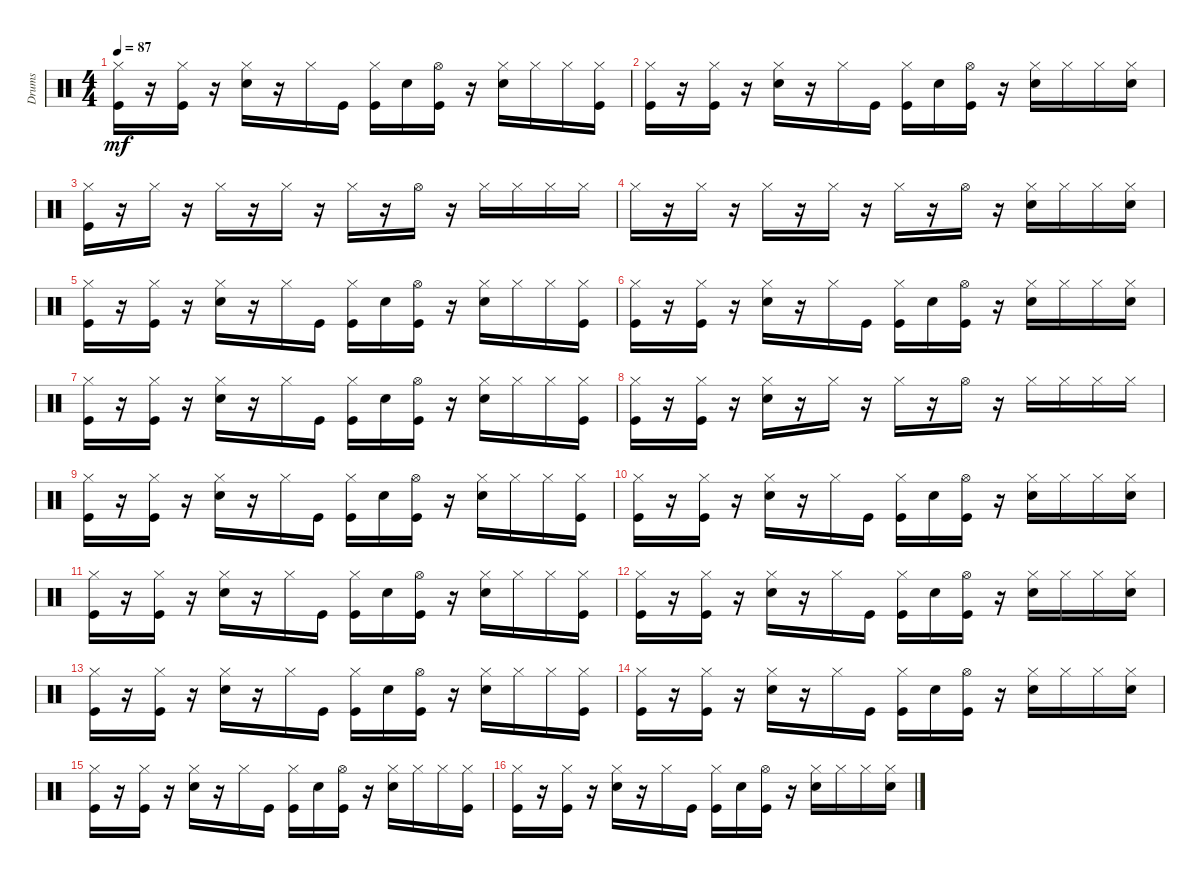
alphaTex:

\track ("Drums" "Drums") {instrument percussion}
\staff {score}
\articulation defaults
\ts (4 4)
\tempo 87
\clef neutral
\ks aminor
("Kick (hit)" "Hi-Hat (closed)").16{dy mf} r.16 ("Kick (hit)" "Hi-Hat (closed)").16 r.16 ("Electric Snare (hit)" "Hi-Hat (closed)").16 r.16 "Hi-Hat (closed)".16 "Kick (hit)".16 ("Kick (hit)" "Hi-Hat (closed)").16 "Electric Snare (hit)".16 ("Kick (hit)" "Hi-Hat (open)").16 r.16 ("Electric Snare (hit)" "Hi-Hat (closed)").16 "Hi-Hat (closed)".16 "Hi-Hat (closed)".16 ("Kick (hit)" "Hi-Hat (closed)").16 |
("Kick (hit)" "Hi-Hat (closed)").16 r.16 ("Kick (hit)" "Hi-Hat (closed)").16 r.16 ("Electric Snare (hit)" "Hi-Hat (closed)").16 r.16 "Hi-Hat (closed)".16 "Kick (hit)".16 ("Kick (hit)" "Hi-Hat (closed)").16 "Electric Snare (hit)".16 ("Kick (hit)" "Hi-Hat (open)").16 r.16 ("Electric Snare (hit)" "Hi-Hat (closed)").16 "Hi-Hat (closed)".16 "Hi-Hat (closed)".16 ("Electric Snare (hit)" "Hi-Hat (closed)").16 |
("Kick (hit)" "Hi-Hat (closed)").16 r.16 "Hi-Hat (closed)".16 r.16 "Hi-Hat (closed)".16 r.16 "Hi-Hat (closed)".16 r.16 "Hi-Hat (closed)".16 r.16 "Hi-Hat (open)".16 r.16 "Hi-Hat (closed)".16 "Hi-Hat (closed)".16 "Hi-Hat (closed)".16 "Hi-Hat (closed)".16 |
"Hi-Hat (closed)".16 r.16 "Hi-Hat (closed)".16 r.16 "Hi-Hat (closed)".16 r.16 "Hi-Hat (closed)".16 r.16 "Hi-Hat (closed)".16 r.16 "Hi-Hat (open)".16 r.16 ("Electric Snare (hit)" "Hi-Hat (closed)").16 "Hi-Hat (closed)".16 "Hi-Hat (closed)".16 ("Electric Snare (hit)" "Hi-Hat (closed)").16 |
("Kick (hit)" "Hi-Hat (closed)").16 r.16 ("Kick (hit)" "Hi-Hat (closed)").16 r.16 ("Electric Snare (hit)" "Hi-Hat (closed)").16 r.16 "Hi-Hat (closed)".16 "Kick (hit)".16 ("Kick (hit)" "Hi-Hat (closed)").16 "Electric Snare (hit)".16 ("Kick (hit)" "Hi-Hat (open)").16 r.16 ("Electric Snare (hit)" "Hi-Hat (closed)").16 "Hi-Hat (closed)".16 "Hi-Hat (closed)".16 ("Kick (hit)" "Hi-Hat (closed)").16 |
("Kick (hit)" "Hi-Hat (closed)").16 r.16 ("Kick (hit)" "Hi-Hat (closed)").16 r.16 ("Electric Snare (hit)" "Hi-Hat (closed)").16 r.16 "Hi-Hat (closed)".16 "Kick (hit)".16 ("Kick (hit)" "Hi-Hat (closed)").16 "Electric Snare (hit)".16 ("Kick (hit)" "Hi-Hat (open)").16 r.16 ("Electric Snare (hit)" "Hi-Hat (closed)").16 "Hi-Hat (closed)".16 "Hi-Hat (closed)".16 ("Electric Snare (hit)" "Hi-Hat (closed)").16 |
("Kick (hit)" "Hi-Hat (closed)").16 r.16 ("Kick (hit)" "Hi-Hat (closed)").16 r.16 ("Electric Snare (hit)" "Hi-Hat (closed)").16 r.16 "Hi-Hat (closed)".16 "Kick (hit)".16 ("Kick (hit)" "Hi-Hat (closed)").16 "Electric Snare (hit)".16 ("Kick (hit)" "Hi-Hat (open)").16 r.16 ("Electric Snare (hit)" "Hi-Hat (closed)").16 "Hi-Hat (closed)".16 "Hi-Hat (closed)".16 ("Kick (hit)" "Hi-Hat (closed)").16 |
("Kick (hit)" "Hi-Hat (closed)").16 r.16 ("Kick (hit)" "Hi-Hat (closed)").16 r.16 ("Electric Snare (hit)" "Hi-Hat (closed)").16 r.16 "Hi-Hat (closed)".16 r.16 "Hi-Hat (closed)".16 r.16 "Hi-Hat (open)".16 r.16 "Hi-Hat (closed)".16 "Hi-Hat (closed)".16 "Hi-Hat (closed)".16 "Hi-Hat (closed)".16 |
("Kick (hit)" "Hi-Hat (closed)").16 r.16 ("Kick (hit)" "Hi-Hat (closed)").16 r.16 ("Electric Snare (hit)" "Hi-Hat (closed)").16 r.16 "Hi-Hat (closed)".16 "Kick (hit)".16 ("Kick (hit)" "Hi-Hat (closed)").16 "Electric Snare (hit)".16 ("Kick (hit)" "Hi-Hat (open)").16 r.16 ("Electric Snare (hit)" "Hi-Hat (closed)").16 "Hi-Hat (closed)".16 "Hi-Hat (closed)".16 ("Kick (hit)" "Hi-Hat (closed)").16 |
("Kick (hit)" "Hi-Hat (closed)").16 r.16 ("Kick (hit)" "Hi-Hat (closed)").16 r.16 ("Electric Snare (hit)" "Hi-Hat (closed)").16 r.16 "Hi-Hat (closed)".16 "Kick (hit)".16 ("Kick (hit)" "Hi-Hat (closed)").16 "Electric Snare (hit)".16 ("Kick (hit)" "Hi-Hat (open)").16 r.16 ("Electric Snare (hit)" "Hi-Hat (closed)").16 "Hi-Hat (closed)".16 "Hi-Hat (closed)".16 ("Electric Snare (hit)" "Hi-Hat (closed)").16 |
("Kick (hit)" "Hi-Hat (closed)").16 r.16 ("Kick (hit)" "Hi-Hat (closed)").16 r.16 ("Electric Snare (hit)" "Hi-Hat (closed)").16 r.16 "Hi-Hat (closed)".16 "Kick (hit)".16 ("Kick (hit)" "Hi-Hat (closed)").16 "Electric Snare (hit)".16 ("Kick (hit)" "Hi-Hat (open)").16 r.16 ("Electric Snare (hit)" "Hi-Hat (closed)").16 "Hi-Hat (closed)".16 "Hi-Hat (closed)".16 ("Kick (hit)" "Hi-Hat (closed)").16 |
("Kick (hit)" "Hi-Hat (closed)").16 r.16 ("Kick (hit)" "Hi-Hat (closed)").16 r.16 ("Electric Snare (hit)" "Hi-Hat (closed)").16 r.16 "Hi-Hat (closed)".16 "Kick (hit)".16 ("Kick (hit)" "Hi-Hat (closed)").16 "Electric Snare (hit)".16 ("Kick (hit)" "Hi-Hat (open)").16 r.16 ("Electric Snare (hit)" "Hi-Hat (closed)").16 "Hi-Hat (closed)".16 "Hi-Hat (closed)".16 ("Electric Snare (hit)" "Hi-Hat (closed)").16 |
("Kick (hit)" "Hi-Hat (closed)").16 r.16 ("Kick (hit)" "Hi-Hat (closed)").16 r.16 ("Electric Snare (hit)" "Hi-Hat (closed)").16 r.16 "Hi-Hat (closed)".16 "Kick (hit)".16 ("Kick (hit)" "Hi-Hat (closed)").16 "Electric Snare (hit)".16 ("Kick (hit)" "Hi-Hat (open)").16 r.16 ("Electric Snare (hit)" "Hi-Hat (closed)").16 "Hi-Hat (closed)".16 "Hi-Hat (closed)".16 ("Kick (hit)" "Hi-Hat (closed)").16 |
("Kick (hit)" "Hi-Hat (closed)").16 r.16 ("Kick (hit)" "Hi-Hat (closed)").16 r.16 ("Electric Snare (hit)" "Hi-Hat (closed)").16 r.16 "Hi-Hat (closed)".16 "Kick (hit)".16 ("Kick (hit)" "Hi-Hat (closed)").16 "Electric Snare (hit)".16 ("Kick (hit)" "Hi-Hat (open)").16 r.16 ("Electric Snare (hit)" "Hi-Hat (closed)").16 "Hi-Hat (closed)".16 "Hi-Hat (closed)".16 ("Electric Snare (hit)" "Hi-Hat (closed)").16 |
("Kick (hit)" "Hi-Hat (closed)").16 r.16 ("Kick (hit)" "Hi-Hat (closed)").16 r.16 ("Electric Snare (hit)" "Hi-Hat (closed)").16 r.16 "Hi-Hat (closed)".16 "Kick (hit)".16 ("Kick (hit)" "Hi-Hat (closed)").16 "Electric Snare (hit)".16 ("Kick (hit)" "Hi-Hat (open)").16 r.16 ("Electric Snare (hit)" "Hi-Hat (closed)").16 "Hi-Hat (closed)".16 "Hi-Hat (closed)".16 ("Kick (hit)" "Hi-Hat (closed)").16 |
("Kick (hit)" "Hi-Hat (closed)").16 r.16 ("Kick (hit)" "Hi-Hat (closed)").16 r.16 ("Electric Snare (hit)" "Hi-Hat (closed)").16 r.16 "Hi-Hat (closed)".16 "Kick (hit)".16 ("Kick (hit)" "Hi-Hat (closed)").16 "Electric Snare (hit)".16 ("Kick (hit)" "Hi-Hat (open)").16 r.16 ("Electric Snare (hit)" "Hi-Hat (closed)").16 "Hi-Hat (closed)".16 "Hi-Hat (closed)".16 ("Electric Snare (hit)" "Hi-Hat (closed)").16
